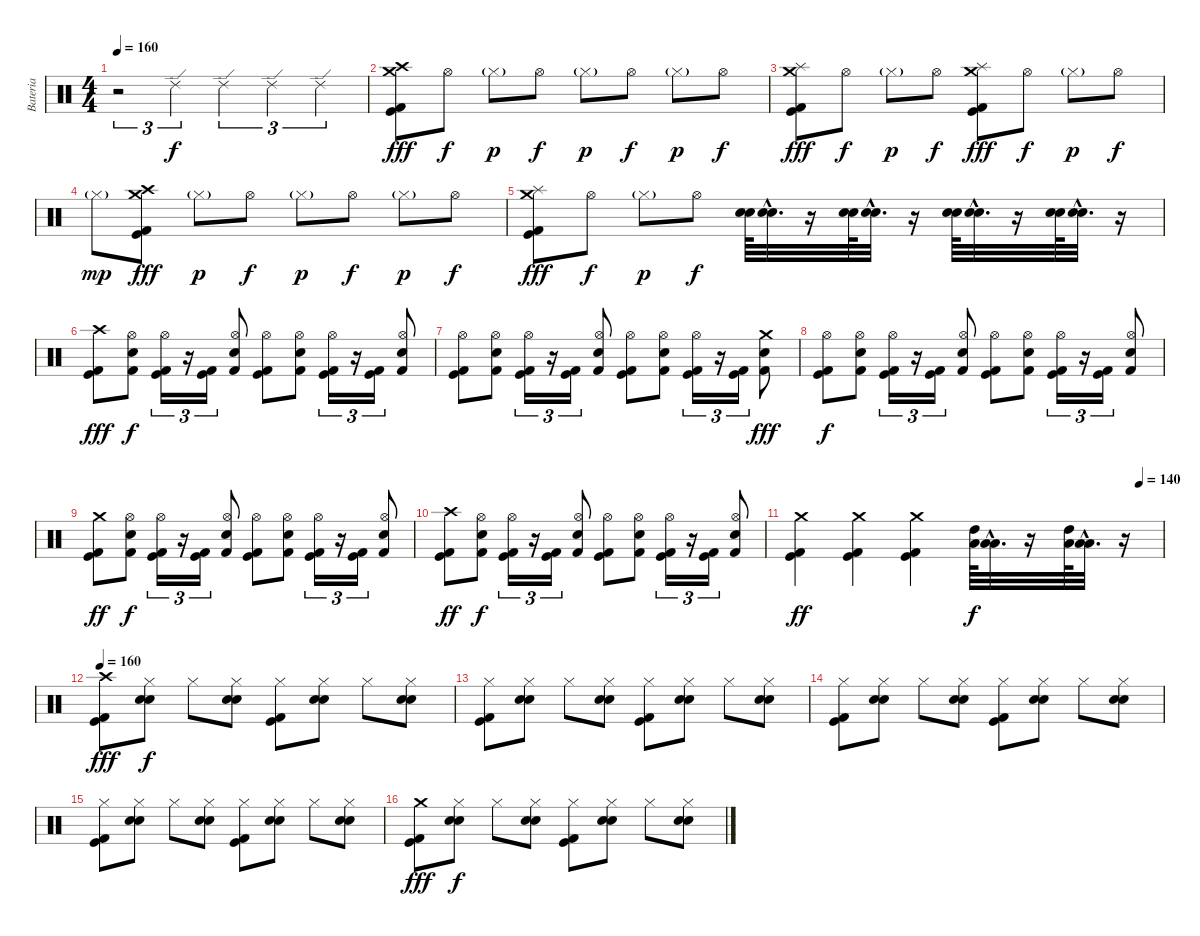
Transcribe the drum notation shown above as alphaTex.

\track ("Bateria" "Bateria") {instrument percussion}
\staff {score}
\articulation defaults
\ts (4 4)
\tempo 160
\tempo 100
\tempo 160
\clef neutral
\ks c
r.2{tu (3 2) dy f} "Ride (edge) 2".4{tu (3 2)} "Ride (edge) 2".4{tu (3 2)} "Ride (edge) 2".4{tu (3 2)} "Ride (edge) 2".4{tu (3 2)} |
("Crash high (hit)" "Crash medium (hit)" "Kick (hit) 2" "Kick (hit)").8{dy fff} "Hi-Hat (open)".8{dy f} "Hi-Hat (closed)"{g}.8{dy p} "Hi-Hat (open)".8{dy f} "Hi-Hat (closed)"{g}.8{dy p} "Hi-Hat (open)".8{dy f} "Hi-Hat (closed)"{g}.8{dy p} "Hi-Hat (open)".8{dy f} |
("Crash medium (hit)" "Splash (hit)" "Kick (hit) 2" "Kick (hit)").8{dy fff} "Hi-Hat (open)".8{dy f} "Hi-Hat (closed)"{g}.8{dy p} "Hi-Hat (open)".8{dy f} ("Crash medium (hit)" "Splash (hit)" "Kick (hit) 2" "Kick (hit)").8{dy fff} "Hi-Hat (open)".8{dy f} "Hi-Hat (closed)"{g}.8{dy p} "Hi-Hat (open)".8{dy f} |
"Hi-Hat (closed)"{g}.8{dy mp} ("Crash high (hit)" "Crash medium (hit)" "Kick (hit) 2" "Kick (hit)").8{dy fff} "Hi-Hat (closed)"{g}.8{dy p} "Hi-Hat (open)".8{dy f} "Hi-Hat (closed)"{g}.8{dy p} "Hi-Hat (open)".8{dy f} "Hi-Hat (closed)"{g}.8{dy p} "Hi-Hat (open)".8{dy f} |
("Crash medium (hit)" "Splash (hit)" "Kick (hit) 2" "Kick (hit)").8{dy fff} "Hi-Hat (open)".8{dy f} "Hi-Hat (closed)"{g}.8{dy p} "Hi-Hat (open)".8{dy f} ("Electric Snare (hit)" "Snare (hit) 2").64 ("Electric Snare (hit)"{hac} "Snare (hit) 2"{hac}).32{d} r.16 ("Electric Snare (hit)" "Snare (hit) 2").64 ("Electric Snare (hit)"{hac} "Snare (hit) 2"{hac}).32{d} r.16 ("Electric Snare (hit)" "Snare (hit) 2").64 ("Electric Snare (hit)"{hac} "Snare (hit) 2"{hac}).32{d} r.16 ("Electric Snare (hit)" "Snare (hit) 2").64 ("Electric Snare (hit)"{hac} "Snare (hit) 2"{hac}).32{d} r.16 |
("Crash high (hit)" "Kick (hit) 2" "Kick (hit)").8{dy fff} ("Hi-Hat (open)" "Electric Snare (hit)" "Kick (hit) 2").8{dy f} ("Hi-Hat (open)" "Kick (hit) 2" "Kick (hit)").16{tu (3 2)} r.16{tu (3 2)} ("Kick (hit) 2" "Kick (hit)").16{tu (3 2)} ("Hi-Hat (open)" "Electric Snare (hit)" "Kick (hit) 2").8 ("Hi-Hat (open)" "Kick (hit) 2" "Kick (hit)").8 ("Hi-Hat (open)" "Electric Snare (hit)" "Kick (hit) 2").8 ("Hi-Hat (open)" "Kick (hit) 2" "Kick (hit)").16{tu (3 2)} r.16{tu (3 2)} ("Kick (hit) 2" "Kick (hit)").16{tu (3 2)} ("Hi-Hat (open)" "Electric Snare (hit)" "Kick (hit) 2").8 |
("Hi-Hat (open)" "Kick (hit) 2" "Kick (hit)").8 ("Hi-Hat (open)" "Electric Snare (hit)" "Kick (hit) 2").8 ("Hi-Hat (open)" "Kick (hit) 2" "Kick (hit)").16{tu (3 2)} r.16{tu (3 2)} ("Kick (hit) 2" "Kick (hit)").16{tu (3 2)} ("Hi-Hat (open)" "Electric Snare (hit)" "Kick (hit) 2").8 ("Hi-Hat (open)" "Kick (hit) 2" "Kick (hit)").8 ("Hi-Hat (open)" "Electric Snare (hit)" "Kick (hit) 2").8 ("Hi-Hat (open)" "Kick (hit) 2" "Kick (hit)").16{tu (3 2)} r.16{tu (3 2)} ("Kick (hit) 2" "Kick (hit)").16{tu (3 2)} ("Crash medium (hit)" "Electric Snare (hit)" "Kick (hit) 2").8{dy fff} |
("Hi-Hat (open)" "Kick (hit) 2" "Kick (hit)").8{dy f} ("Hi-Hat (open)" "Electric Snare (hit)" "Kick (hit) 2").8 ("Hi-Hat (open)" "Kick (hit) 2" "Kick (hit)").16{tu (3 2)} r.16{tu (3 2)} ("Kick (hit) 2" "Kick (hit)").16{tu (3 2)} ("Hi-Hat (open)" "Electric Snare (hit)" "Kick (hit) 2").8 ("Hi-Hat (open)" "Kick (hit) 2" "Kick (hit)").8 ("Hi-Hat (open)" "Electric Snare (hit)" "Kick (hit) 2").8 ("Hi-Hat (open)" "Kick (hit) 2" "Kick (hit)").16{tu (3 2)} r.16{tu (3 2)} ("Kick (hit) 2" "Kick (hit)").16{tu (3 2)} ("Hi-Hat (open)" "Electric Snare (hit)" "Kick (hit) 2").8 |
("Crash medium (hit)" "Kick (hit) 2" "Kick (hit)").8{dy ff} ("Hi-Hat (open)" "Electric Snare (hit)" "Kick (hit) 2").8{dy f} ("Hi-Hat (open)" "Kick (hit) 2" "Kick (hit)").16{tu (3 2)} r.16{tu (3 2)} ("Kick (hit) 2" "Kick (hit)").16{tu (3 2)} ("Hi-Hat (open)" "Electric Snare (hit)" "Kick (hit) 2").8 ("Hi-Hat (open)" "Kick (hit) 2" "Kick (hit)").8 ("Hi-Hat (open)" "Electric Snare (hit)" "Kick (hit) 2").8 ("Hi-Hat (open)" "Kick (hit) 2" "Kick (hit)").16{tu (3 2)} r.16{tu (3 2)} ("Kick (hit) 2" "Kick (hit)").16{tu (3 2)} ("Hi-Hat (open)" "Electric Snare (hit)" "Kick (hit) 2").8 |
("Crash high (hit)" "Kick (hit) 2" "Kick (hit)").8{dy ff} ("Hi-Hat (open)" "Electric Snare (hit)" "Kick (hit) 2").8{dy f} ("Hi-Hat (open)" "Kick (hit) 2" "Kick (hit)").16{tu (3 2)} r.16{tu (3 2)} ("Kick (hit) 2" "Kick (hit)").16{tu (3 2)} ("Hi-Hat (open)" "Electric Snare (hit)" "Kick (hit) 2").8 ("Hi-Hat (open)" "Kick (hit) 2" "Kick (hit)").8 ("Hi-Hat (open)" "Electric Snare (hit)" "Kick (hit) 2").8 ("Hi-Hat (open)" "Kick (hit) 2" "Kick (hit)").16{tu (3 2)} r.16{tu (3 2)} ("Kick (hit) 2" "Kick (hit)").16{tu (3 2)} ("Hi-Hat (open)" "Electric Snare (hit)" "Kick (hit) 2").8 |
\tempo (140 0.9375)
("Crash medium (hit)" "Kick (hit) 2" "Kick (hit)").4{dy ff} ("Crash medium (hit)" "Kick (hit) 2" "Kick (hit)").4 ("Crash medium (hit)" "Kick (hit) 2" "Kick (hit)").4 ("High Tom (hit)" "Low Tom (hit)").64{dy f} ("Low Tom (hit)"{hac} "Low Floor Tom (hit)"{hac}).32{d} r.16 ("High Tom (hit)" "Low Tom (hit)").64 ("Low Tom (hit)"{hac} "Low Floor Tom (hit)"{hac}).32{d} r.16 |
\tempo 160
("Crash high (hit)" "Kick (hit) 2" "Kick (hit)").8{dy fff} ("Hi-Hat (closed)" "Electric Snare (hit)" "Snare (hit) 2").8{dy f} "Hi-Hat (closed)".8 ("Hi-Hat (closed)" "Electric Snare (hit)" "Snare (hit) 2").8 ("Hi-Hat (closed)" "Kick (hit) 2" "Kick (hit)").8 ("Hi-Hat (closed)" "Electric Snare (hit)" "Snare (hit) 2").8 "Hi-Hat (closed)".8 ("Hi-Hat (closed)" "Electric Snare (hit)" "Snare (hit) 2").8 |
("Hi-Hat (closed)" "Kick (hit) 2" "Kick (hit)").8 ("Hi-Hat (closed)" "Electric Snare (hit)" "Snare (hit) 2").8 "Hi-Hat (closed)".8 ("Hi-Hat (closed)" "Electric Snare (hit)" "Snare (hit) 2").8 ("Hi-Hat (closed)" "Kick (hit) 2" "Kick (hit)").8 ("Hi-Hat (closed)" "Electric Snare (hit)" "Snare (hit) 2").8 "Hi-Hat (closed)".8 ("Hi-Hat (closed)" "Electric Snare (hit)" "Snare (hit) 2").8 |
("Hi-Hat (closed)" "Kick (hit) 2" "Kick (hit)").8 ("Hi-Hat (closed)" "Electric Snare (hit)" "Snare (hit) 2").8 "Hi-Hat (closed)".8 ("Hi-Hat (closed)" "Electric Snare (hit)" "Snare (hit) 2").8 ("Hi-Hat (closed)" "Kick (hit) 2" "Kick (hit)").8 ("Hi-Hat (closed)" "Electric Snare (hit)" "Snare (hit) 2").8 "Hi-Hat (closed)".8 ("Hi-Hat (closed)" "Electric Snare (hit)" "Snare (hit) 2").8 |
("Hi-Hat (closed)" "Kick (hit) 2" "Kick (hit)").8 ("Hi-Hat (closed)" "Electric Snare (hit)" "Snare (hit) 2").8 "Hi-Hat (closed)".8 ("Hi-Hat (closed)" "Electric Snare (hit)" "Snare (hit) 2").8 ("Hi-Hat (closed)" "Kick (hit) 2" "Kick (hit)").8 ("Hi-Hat (closed)" "Electric Snare (hit)" "Snare (hit) 2").8 "Hi-Hat (closed)".8 ("Hi-Hat (closed)" "Electric Snare (hit)" "Snare (hit) 2").8 |
("Crash medium (hit)" "Kick (hit) 2" "Kick (hit)").8{dy fff} ("Hi-Hat (closed)" "Electric Snare (hit)" "Snare (hit) 2").8{dy f} "Hi-Hat (closed)".8 ("Hi-Hat (closed)" "Electric Snare (hit)" "Snare (hit) 2").8 ("Hi-Hat (closed)" "Kick (hit) 2" "Kick (hit)").8 ("Hi-Hat (closed)" "Electric Snare (hit)" "Snare (hit) 2").8 "Hi-Hat (closed)".8 ("Hi-Hat (closed)" "Electric Snare (hit)" "Snare (hit) 2").8
